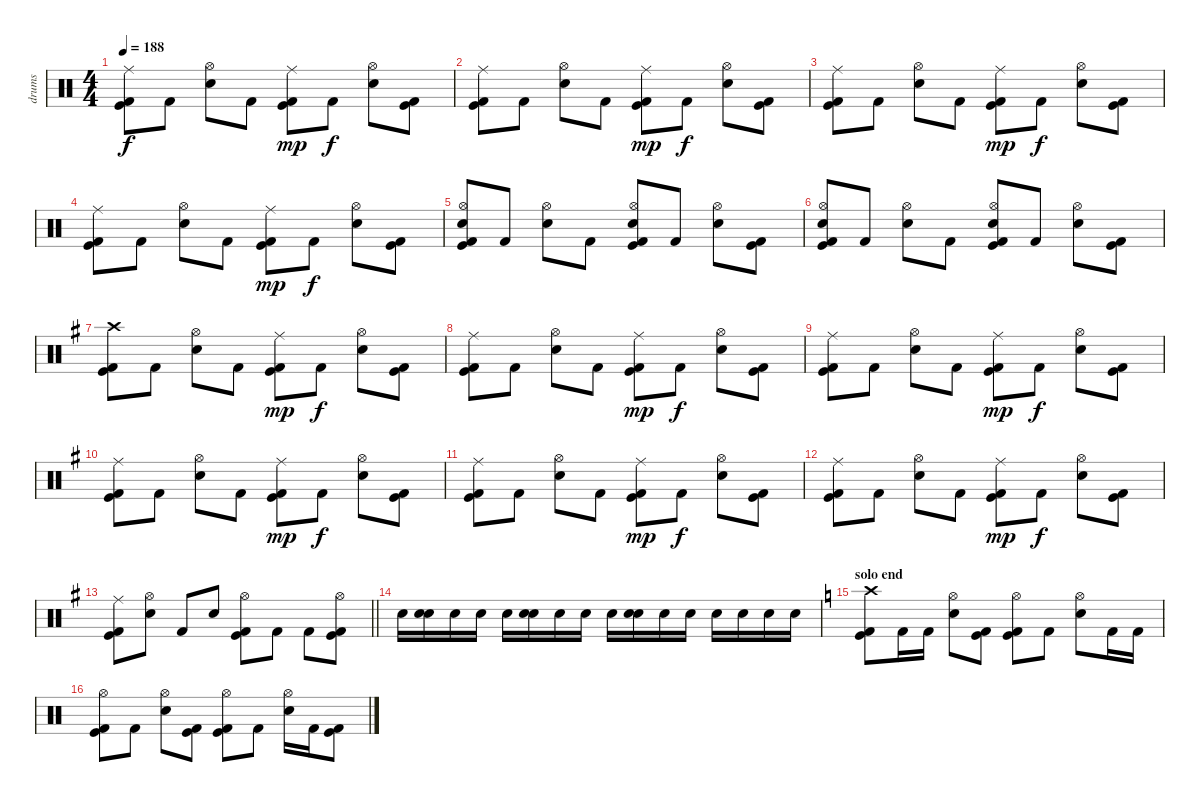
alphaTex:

\track ("drums" "drums") {instrument percussion}
\staff {score}
\articulation defaults
\ts (4 4)
\tempo 188
\clef neutral
\ks c
("Ride (middle)" "Kick (hit)" "Kick (hit) 2").8{dy f} "Kick (hit) 2".8 ("Hi-Hat (open)" "Snare (hit) 2").8 "Kick (hit) 2".8 ("Ride (middle)" "Kick (hit)" "Kick (hit) 2").8{dy mp} "Kick (hit) 2".8{dy f} ("Hi-Hat (open)" "Snare (hit) 2").8 ("Kick (hit)" "Kick (hit) 2").8 |
("Ride (middle)" "Kick (hit)" "Kick (hit) 2").8 "Kick (hit) 2".8 ("Hi-Hat (open)" "Snare (hit) 2").8 "Kick (hit) 2".8 ("Ride (middle)" "Kick (hit)" "Kick (hit) 2").8{dy mp} "Kick (hit) 2".8{dy f} ("Hi-Hat (open)" "Snare (hit) 2").8 ("Kick (hit)" "Kick (hit) 2").8 |
("Ride (middle)" "Kick (hit)" "Kick (hit) 2").8 "Kick (hit) 2".8 ("Hi-Hat (open)" "Snare (hit) 2").8 "Kick (hit) 2".8 ("Ride (middle)" "Kick (hit)" "Kick (hit) 2").8{dy mp} "Kick (hit) 2".8{dy f} ("Hi-Hat (open)" "Snare (hit) 2").8 ("Kick (hit)" "Kick (hit) 2").8 |
("Ride (middle)" "Kick (hit)" "Kick (hit) 2").8 "Kick (hit) 2".8 ("Hi-Hat (open)" "Snare (hit) 2").8 "Kick (hit) 2".8 ("Ride (middle)" "Kick (hit)" "Kick (hit) 2").8{dy mp} "Kick (hit) 2".8{dy f} ("Hi-Hat (open)" "Snare (hit) 2").8 ("Kick (hit)" "Kick (hit) 2").8 |
("Hi-Hat (open)" "Electric Snare (hit)" "Kick (hit)" "Kick (hit) 2").8 "Kick (hit) 2".8 ("Hi-Hat (open)" "Snare (hit) 2").8 "Kick (hit) 2".8 ("Hi-Hat (open)" "Electric Snare (hit)" "Kick (hit)" "Kick (hit) 2").8 "Kick (hit) 2".8 ("Hi-Hat (open)" "Snare (hit) 2").8 ("Kick (hit)" "Kick (hit) 2").8 |
("Hi-Hat (open)" "Electric Snare (hit)" "Kick (hit)" "Kick (hit) 2").8 "Kick (hit) 2".8 ("Hi-Hat (open)" "Snare (hit) 2").8 "Kick (hit) 2".8 ("Hi-Hat (open)" "Electric Snare (hit)" "Kick (hit)" "Kick (hit) 2").8 "Kick (hit) 2".8 ("Hi-Hat (open)" "Snare (hit) 2").8 ("Kick (hit)" "Kick (hit) 2").8 |
\ks g
("Crash high (hit)" "Kick (hit)" "Kick (hit) 2").8 "Kick (hit) 2".8 ("Hi-Hat (open)" "Snare (hit) 2").8 "Kick (hit) 2".8 ("Ride (middle)" "Kick (hit)" "Kick (hit) 2").8{dy mp} "Kick (hit) 2".8{dy f} ("Hi-Hat (open)" "Snare (hit) 2").8 ("Kick (hit)" "Kick (hit) 2").8 |
("Ride (middle)" "Kick (hit)" "Kick (hit) 2").8 "Kick (hit) 2".8 ("Hi-Hat (open)" "Snare (hit) 2").8 "Kick (hit) 2".8 ("Ride (middle)" "Kick (hit)" "Kick (hit) 2").8{dy mp} "Kick (hit) 2".8{dy f} ("Hi-Hat (open)" "Snare (hit) 2").8 ("Kick (hit)" "Kick (hit) 2").8 |
("Ride (middle)" "Kick (hit)" "Kick (hit) 2").8 "Kick (hit) 2".8 ("Hi-Hat (open)" "Snare (hit) 2").8 "Kick (hit) 2".8 ("Ride (middle)" "Kick (hit)" "Kick (hit) 2").8{dy mp} "Kick (hit) 2".8{dy f} ("Hi-Hat (open)" "Snare (hit) 2").8 ("Kick (hit)" "Kick (hit) 2").8 |
("Ride (middle)" "Kick (hit)" "Kick (hit) 2").8 "Kick (hit) 2".8 ("Hi-Hat (open)" "Snare (hit) 2").8 "Kick (hit) 2".8 ("Ride (middle)" "Kick (hit)" "Kick (hit) 2").8{dy mp} "Kick (hit) 2".8{dy f} ("Hi-Hat (open)" "Snare (hit) 2").8 ("Kick (hit)" "Kick (hit) 2").8 |
("Ride (middle)" "Kick (hit)" "Kick (hit) 2").8 "Kick (hit) 2".8 ("Hi-Hat (open)" "Snare (hit) 2").8 "Kick (hit) 2".8 ("Ride (middle)" "Kick (hit)" "Kick (hit) 2").8{dy mp} "Kick (hit) 2".8{dy f} ("Hi-Hat (open)" "Snare (hit) 2").8 ("Kick (hit)" "Kick (hit) 2").8 |
("Ride (middle)" "Kick (hit)" "Kick (hit) 2").8 "Kick (hit) 2".8 ("Hi-Hat (open)" "Snare (hit) 2").8 "Kick (hit) 2".8 ("Ride (middle)" "Kick (hit)" "Kick (hit) 2").8{dy mp} "Kick (hit) 2".8{dy f} ("Hi-Hat (open)" "Snare (hit) 2").8 ("Kick (hit)" "Kick (hit) 2").8 |
\barLineRight lightlight
("Ride (middle)" "Kick (hit)" "Kick (hit) 2").8 ("Hi-Hat (open)" "Snare (hit) 2").8 "Kick (hit) 2".8 "Snare (hit) 2".8 ("Hi-Hat (open)" "Kick (hit)" "Kick (hit) 2").8 "Kick (hit) 2".8 "Kick (hit) 2".8 ("Hi-Hat (open)" "Kick (hit)" "Kick (hit) 2").8 |
"Electric Snare (hit)".16 ("Electric Snare (hit)" "Electric Snare (hit)").16 "Electric Snare (hit)".16 "Electric Snare (hit)".16 "Electric Snare (hit)".16 ("Snare (hit)" "Electric Snare (hit)").16 "Electric Snare (hit)".16 "Electric Snare (hit)".16 "Electric Snare (hit)".16 ("Electric Snare (hit)" "Electric Snare (hit)").16 "Electric Snare (hit)".16 "Electric Snare (hit)".16 "Electric Snare (hit)".16 "Electric Snare (hit)".16 "Electric Snare (hit)".16 "Electric Snare (hit)".16 |
\section ("" "solo end")
\ks c
("Crash high (hit)" "Kick (hit)" "Kick (hit) 2").8 "Kick (hit) 2".16 "Kick (hit) 2".16 ("Hi-Hat (open)" "Snare (hit) 2").8 ("Kick (hit)" "Kick (hit) 2").8 ("Hi-Hat (open)" "Kick (hit)" "Kick (hit) 2").8 "Kick (hit) 2".8 ("Hi-Hat (open)" "Snare (hit) 2").8 "Kick (hit) 2".16 "Kick (hit) 2".16 |
("Hi-Hat (open)" "Kick (hit)" "Kick (hit) 2").8 "Kick (hit) 2".8 ("Hi-Hat (open)" "Snare (hit) 2").8 ("Kick (hit)" "Kick (hit) 2").8 ("Hi-Hat (open)" "Kick (hit)" "Kick (hit) 2").8 "Kick (hit) 2".8 ("Hi-Hat (open)" "Snare (hit) 2").16 "Kick (hit) 2".16 ("Kick (hit)" "Kick (hit) 2").8
